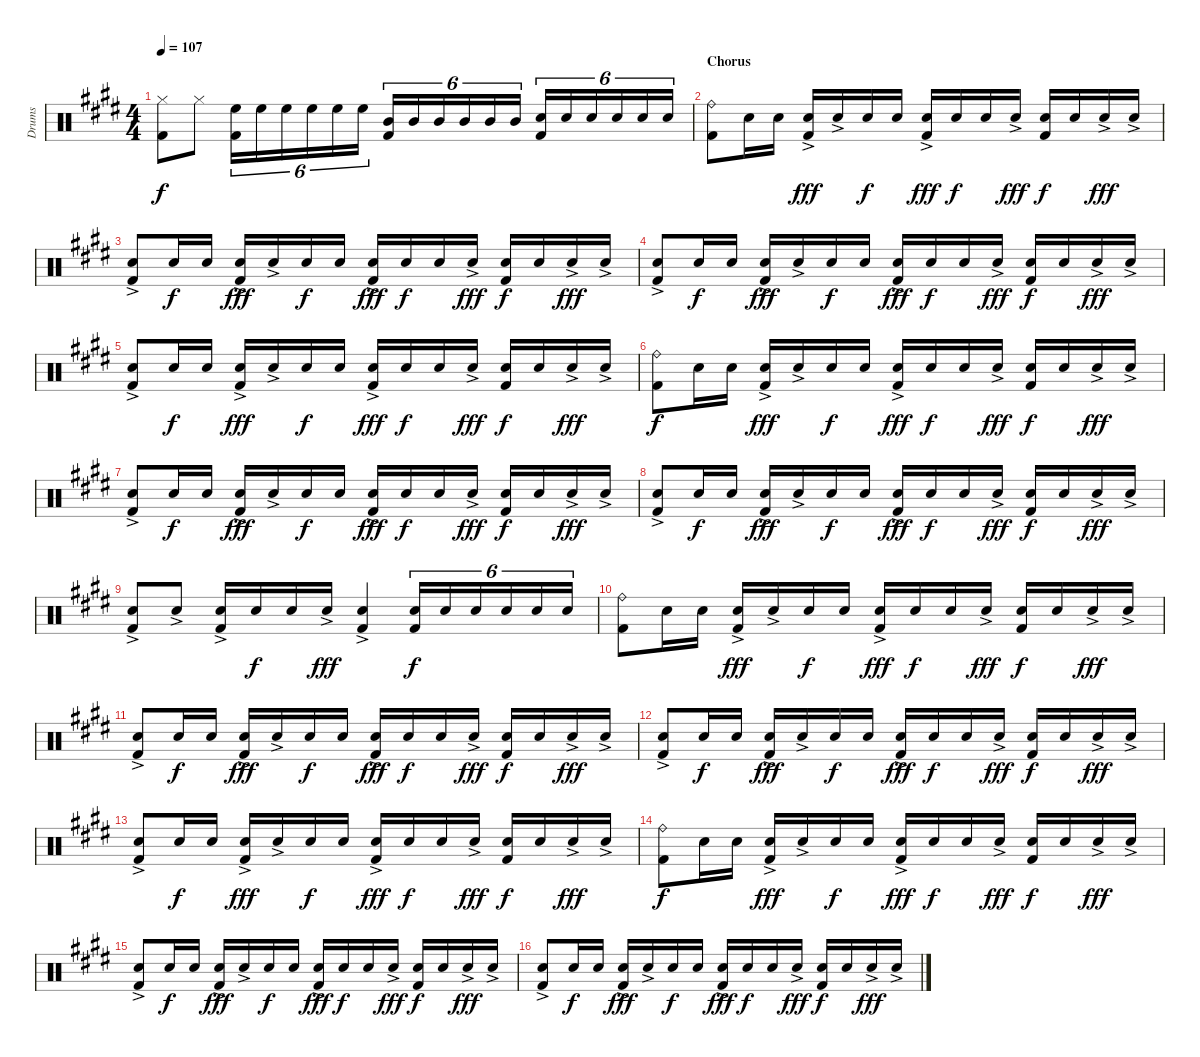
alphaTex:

\track ("Drums" "Drums") {instrument percussion}
\staff {score}
\articulation defaults
\ts (4 4)
\tempo 107
\clef neutral
\ks c#minor
("Hi-Hat (closed)" "Kick (hit) 2").8{dy f} "Hi-Hat (closed)".8 ("High Floor Tom (hit)" "Kick (hit) 2").16{tu (6 4)} "High Floor Tom (hit)".16{tu (6 4)} "High Floor Tom (hit)".16{tu (6 4)} "High Floor Tom (hit)".16{tu (6 4)} "High Floor Tom (hit)".16{tu (6 4)} "High Floor Tom (hit)".16{tu (6 4)} ("Mid Tom (hit)" "Kick (hit) 2").16{tu (6 4)} "Mid Tom (hit)".16{tu (6 4)} "Mid Tom (hit)".16{tu (6 4)} "Mid Tom (hit)".16{tu (6 4)} "Mid Tom (hit)".16{tu (6 4)} "Mid Tom (hit)".16{tu (6 4)} ("Snare (hit) 2" "Kick (hit) 2").16{tu (6 4)} "Snare (hit) 2".16{tu (6 4)} "Snare (hit) 2".16{tu (6 4)} "Snare (hit) 2".16{tu (6 4)} "Snare (hit) 2".16{tu (6 4)} "Snare (hit) 2".16{tu (6 4)} |
\section ("" "Chorus")
("Ride (bell)" "Kick (hit) 2").8 "Electric Snare (hit)".16 "Electric Snare (hit)".16 ("Electric Snare (hit)"{ac} "Kick (hit) 2").16{dy fff} "Electric Snare (hit)"{ac}.16 "Electric Snare (hit)".16{dy f} "Electric Snare (hit)".16 ("Electric Snare (hit)"{ac} "Kick (hit) 2").16{dy fff} "Electric Snare (hit)".16{dy f} "Electric Snare (hit)".16 "Electric Snare (hit)"{ac}.16{dy fff} ("Electric Snare (hit)" "Kick (hit) 2").16{dy f} "Electric Snare (hit)".16 "Electric Snare (hit)"{ac}.16{dy fff} "Electric Snare (hit)"{ac}.16 |
("Electric Snare (hit)"{ac} "Kick (hit) 2").8 "Electric Snare (hit)".16{dy f} "Electric Snare (hit)".16 ("Electric Snare (hit)"{ac} "Kick (hit) 2").16{dy fff} "Electric Snare (hit)"{ac}.16 "Electric Snare (hit)".16{dy f} "Electric Snare (hit)".16 ("Electric Snare (hit)"{ac} "Kick (hit) 2").16{dy fff} "Electric Snare (hit)".16{dy f} "Electric Snare (hit)".16 "Electric Snare (hit)"{ac}.16{dy fff} ("Electric Snare (hit)" "Kick (hit) 2").16{dy f} "Electric Snare (hit)".16 "Electric Snare (hit)"{ac}.16{dy fff} "Electric Snare (hit)"{ac}.16 |
("Electric Snare (hit)"{ac} "Kick (hit) 2").8 "Electric Snare (hit)".16{dy f} "Electric Snare (hit)".16 ("Electric Snare (hit)"{ac} "Kick (hit) 2").16{dy fff} "Electric Snare (hit)"{ac}.16 "Electric Snare (hit)".16{dy f} "Electric Snare (hit)".16 ("Electric Snare (hit)"{ac} "Kick (hit) 2").16{dy fff} "Electric Snare (hit)".16{dy f} "Electric Snare (hit)".16 "Electric Snare (hit)"{ac}.16{dy fff} ("Electric Snare (hit)" "Kick (hit) 2").16{dy f} "Electric Snare (hit)".16 "Electric Snare (hit)"{ac}.16{dy fff} "Electric Snare (hit)"{ac}.16 |
("Electric Snare (hit)"{ac} "Kick (hit) 2").8 "Electric Snare (hit)".16{dy f} "Electric Snare (hit)".16 ("Electric Snare (hit)"{ac} "Kick (hit) 2").16{dy fff} "Electric Snare (hit)"{ac}.16 "Electric Snare (hit)".16{dy f} "Electric Snare (hit)".16 ("Electric Snare (hit)"{ac} "Kick (hit) 2").16{dy fff} "Electric Snare (hit)".16{dy f} "Electric Snare (hit)".16 "Electric Snare (hit)"{ac}.16{dy fff} ("Electric Snare (hit)" "Kick (hit) 2").16{dy f} "Electric Snare (hit)".16 "Electric Snare (hit)"{ac}.16{dy fff} "Electric Snare (hit)"{ac}.16 |
("Ride (bell)" "Kick (hit) 2").8{dy f} "Electric Snare (hit)".16 "Electric Snare (hit)".16 ("Electric Snare (hit)"{ac} "Kick (hit) 2").16{dy fff} "Electric Snare (hit)"{ac}.16 "Electric Snare (hit)".16{dy f} "Electric Snare (hit)".16 ("Electric Snare (hit)"{ac} "Kick (hit) 2").16{dy fff} "Electric Snare (hit)".16{dy f} "Electric Snare (hit)".16 "Electric Snare (hit)"{ac}.16{dy fff} ("Electric Snare (hit)" "Kick (hit) 2").16{dy f} "Electric Snare (hit)".16 "Electric Snare (hit)"{ac}.16{dy fff} "Electric Snare (hit)"{ac}.16 |
("Electric Snare (hit)"{ac} "Kick (hit) 2").8 "Electric Snare (hit)".16{dy f} "Electric Snare (hit)".16 ("Electric Snare (hit)"{ac} "Kick (hit) 2").16{dy fff} "Electric Snare (hit)"{ac}.16 "Electric Snare (hit)".16{dy f} "Electric Snare (hit)".16 ("Electric Snare (hit)"{ac} "Kick (hit) 2").16{dy fff} "Electric Snare (hit)".16{dy f} "Electric Snare (hit)".16 "Electric Snare (hit)"{ac}.16{dy fff} ("Electric Snare (hit)" "Kick (hit) 2").16{dy f} "Electric Snare (hit)".16 "Electric Snare (hit)"{ac}.16{dy fff} "Electric Snare (hit)"{ac}.16 |
("Electric Snare (hit)"{ac} "Kick (hit) 2").8 "Electric Snare (hit)".16{dy f} "Electric Snare (hit)".16 ("Electric Snare (hit)"{ac} "Kick (hit) 2").16{dy fff} "Electric Snare (hit)"{ac}.16 "Electric Snare (hit)".16{dy f} "Electric Snare (hit)".16 ("Electric Snare (hit)"{ac} "Kick (hit) 2").16{dy fff} "Electric Snare (hit)".16{dy f} "Electric Snare (hit)".16 "Electric Snare (hit)"{ac}.16{dy fff} ("Electric Snare (hit)" "Kick (hit) 2").16{dy f} "Electric Snare (hit)".16 "Electric Snare (hit)"{ac}.16{dy fff} "Electric Snare (hit)"{ac}.16 |
("Electric Snare (hit)"{ac} "Kick (hit) 2").8 "Electric Snare (hit)"{ac}.8 ("Electric Snare (hit)"{ac} "Kick (hit) 2").16 "Electric Snare (hit)".16{dy f} "Electric Snare (hit)".16 "Electric Snare (hit)"{ac}.16{dy fff} ("Electric Snare (hit)"{ac} "Kick (hit) 2").4 ("Snare (hit) 2" "Kick (hit) 2").16{tu (6 4) dy f} "Snare (hit) 2".16{tu (6 4)} "Snare (hit) 2".16{tu (6 4)} "Snare (hit) 2".16{tu (6 4)} "Snare (hit) 2".16{tu (6 4)} "Snare (hit) 2".16{tu (6 4)} |
("Ride (bell)" "Kick (hit) 2").8 "Electric Snare (hit)".16 "Electric Snare (hit)".16 ("Electric Snare (hit)"{ac} "Kick (hit) 2").16{dy fff} "Electric Snare (hit)"{ac}.16 "Electric Snare (hit)".16{dy f} "Electric Snare (hit)".16 ("Electric Snare (hit)"{ac} "Kick (hit) 2").16{dy fff} "Electric Snare (hit)".16{dy f} "Electric Snare (hit)".16 "Electric Snare (hit)"{ac}.16{dy fff} ("Electric Snare (hit)" "Kick (hit) 2").16{dy f} "Electric Snare (hit)".16 "Electric Snare (hit)"{ac}.16{dy fff} "Electric Snare (hit)"{ac}.16 |
("Electric Snare (hit)"{ac} "Kick (hit) 2").8 "Electric Snare (hit)".16{dy f} "Electric Snare (hit)".16 ("Electric Snare (hit)"{ac} "Kick (hit) 2").16{dy fff} "Electric Snare (hit)"{ac}.16 "Electric Snare (hit)".16{dy f} "Electric Snare (hit)".16 ("Electric Snare (hit)"{ac} "Kick (hit) 2").16{dy fff} "Electric Snare (hit)".16{dy f} "Electric Snare (hit)".16 "Electric Snare (hit)"{ac}.16{dy fff} ("Electric Snare (hit)" "Kick (hit) 2").16{dy f} "Electric Snare (hit)".16 "Electric Snare (hit)"{ac}.16{dy fff} "Electric Snare (hit)"{ac}.16 |
("Electric Snare (hit)"{ac} "Kick (hit) 2").8 "Electric Snare (hit)".16{dy f} "Electric Snare (hit)".16 ("Electric Snare (hit)"{ac} "Kick (hit) 2").16{dy fff} "Electric Snare (hit)"{ac}.16 "Electric Snare (hit)".16{dy f} "Electric Snare (hit)".16 ("Electric Snare (hit)"{ac} "Kick (hit) 2").16{dy fff} "Electric Snare (hit)".16{dy f} "Electric Snare (hit)".16 "Electric Snare (hit)"{ac}.16{dy fff} ("Electric Snare (hit)" "Kick (hit) 2").16{dy f} "Electric Snare (hit)".16 "Electric Snare (hit)"{ac}.16{dy fff} "Electric Snare (hit)"{ac}.16 |
("Electric Snare (hit)"{ac} "Kick (hit) 2").8 "Electric Snare (hit)".16{dy f} "Electric Snare (hit)".16 ("Electric Snare (hit)"{ac} "Kick (hit) 2").16{dy fff} "Electric Snare (hit)"{ac}.16 "Electric Snare (hit)".16{dy f} "Electric Snare (hit)".16 ("Electric Snare (hit)"{ac} "Kick (hit) 2").16{dy fff} "Electric Snare (hit)".16{dy f} "Electric Snare (hit)".16 "Electric Snare (hit)"{ac}.16{dy fff} ("Electric Snare (hit)" "Kick (hit) 2").16{dy f} "Electric Snare (hit)".16 "Electric Snare (hit)"{ac}.16{dy fff} "Electric Snare (hit)"{ac}.16 |
("Ride (bell)" "Kick (hit) 2").8{dy f} "Electric Snare (hit)".16 "Electric Snare (hit)".16 ("Electric Snare (hit)"{ac} "Kick (hit) 2").16{dy fff} "Electric Snare (hit)"{ac}.16 "Electric Snare (hit)".16{dy f} "Electric Snare (hit)".16 ("Electric Snare (hit)"{ac} "Kick (hit) 2").16{dy fff} "Electric Snare (hit)".16{dy f} "Electric Snare (hit)".16 "Electric Snare (hit)"{ac}.16{dy fff} ("Electric Snare (hit)" "Kick (hit) 2").16{dy f} "Electric Snare (hit)".16 "Electric Snare (hit)"{ac}.16{dy fff} "Electric Snare (hit)"{ac}.16 |
("Electric Snare (hit)"{ac} "Kick (hit) 2").8 "Electric Snare (hit)".16{dy f} "Electric Snare (hit)".16 ("Electric Snare (hit)"{ac} "Kick (hit) 2").16{dy fff} "Electric Snare (hit)"{ac}.16 "Electric Snare (hit)".16{dy f} "Electric Snare (hit)".16 ("Electric Snare (hit)"{ac} "Kick (hit) 2").16{dy fff} "Electric Snare (hit)".16{dy f} "Electric Snare (hit)".16 "Electric Snare (hit)"{ac}.16{dy fff} ("Electric Snare (hit)" "Kick (hit) 2").16{dy f} "Electric Snare (hit)".16 "Electric Snare (hit)"{ac}.16{dy fff} "Electric Snare (hit)"{ac}.16 |
("Electric Snare (hit)"{ac} "Kick (hit) 2").8 "Electric Snare (hit)".16{dy f} "Electric Snare (hit)".16 ("Electric Snare (hit)"{ac} "Kick (hit) 2").16{dy fff} "Electric Snare (hit)"{ac}.16 "Electric Snare (hit)".16{dy f} "Electric Snare (hit)".16 ("Electric Snare (hit)"{ac} "Kick (hit) 2").16{dy fff} "Electric Snare (hit)".16{dy f} "Electric Snare (hit)".16 "Electric Snare (hit)"{ac}.16{dy fff} ("Electric Snare (hit)" "Kick (hit) 2").16{dy f} "Electric Snare (hit)".16 "Electric Snare (hit)"{ac}.16{dy fff} "Electric Snare (hit)"{ac}.16
